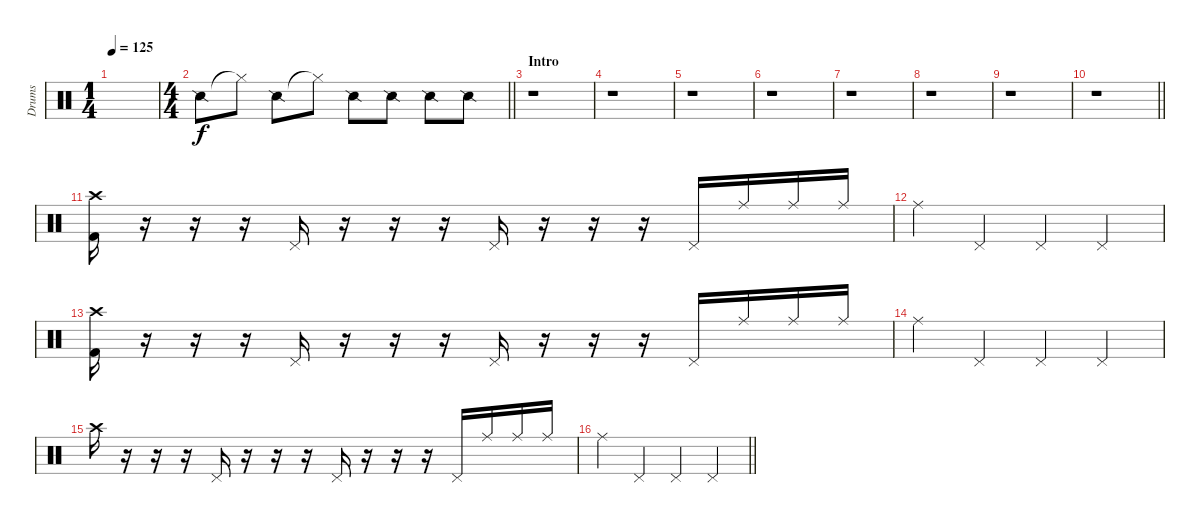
\track ("Drums" "Drums") {instrument percussion}
\staff {score}
\articulation defaults
\ts (1 4)
\tempo 125
\clef neutral
\ks c
|
\ts (4 4)
\barLineRight lightlight "Snare (side stick) 2".8 "Hi-Hat (closed)"{t}.8 "Snare (side stick) 2".8 "Hi-Hat (closed)"{t}.8 "Snare (side stick) 2".8 "Snare (side stick) 2".8 "Snare (side stick) 2".8 "Snare (side stick) 2".8
|
\section ("" "Intro")
r.1 |
r.1 |
r.1 |
r.1 |
r.1 |
r.1 |
r.1 |
\barLineRight lightlight
r.1 |
("Crash high (hit)" "Kick (hit) 2").16 r.16 r.16 r.16 "Pedal Hi-Hat (hit)".16 r.16 r.16 r.16 "Pedal Hi-Hat (hit)".16 r.16 r.16 r.16 "Pedal Hi-Hat (hit)".16 "Ride (middle)".16 "Ride (middle)".16 "Ride (middle)".16 |
"Ride (middle)".4 "Pedal Hi-Hat (hit)".4 "Pedal Hi-Hat (hit)".4 "Pedal Hi-Hat (hit)".4 |
("Crash high (hit)" "Kick (hit) 2").16 r.16 r.16 r.16 "Pedal Hi-Hat (hit)".16 r.16 r.16 r.16 "Pedal Hi-Hat (hit)".16 r.16 r.16 r.16 "Pedal Hi-Hat (hit)".16 "Ride (middle)".16 "Ride (middle)".16 "Ride (middle)".16 |
"Ride (middle)".4 "Pedal Hi-Hat (hit)".4 "Pedal Hi-Hat (hit)".4 "Pedal Hi-Hat (hit)".4 |
"Crash high (hit)".16 r.16 r.16 r.16 "Pedal Hi-Hat (hit)".16 r.16 r.16 r.16 "Pedal Hi-Hat (hit)".16 r.16 r.16 r.16 "Pedal Hi-Hat (hit)".16 "Ride (middle)".16 "Ride (middle)".16 "Ride (middle)".16 |
\barLineRight lightlight "Ride (middle)".4 "Pedal Hi-Hat (hit)".4 "Pedal Hi-Hat (hit)".4 "Pedal Hi-Hat (hit)".4
